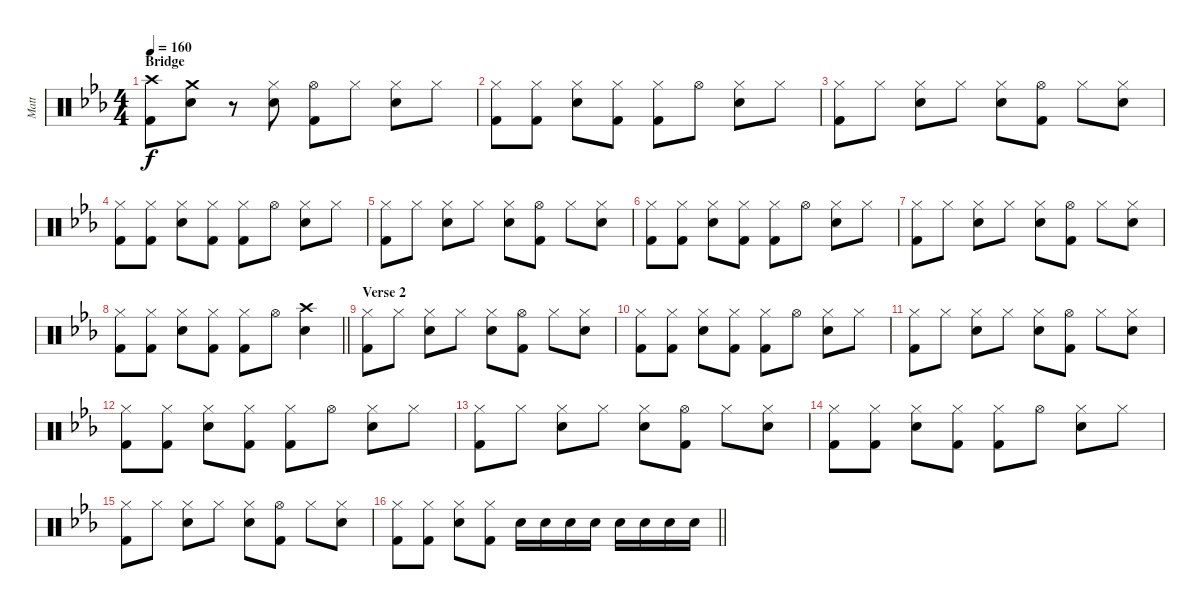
\track ("Matt" "Matt") {instrument percussion}
\staff {score}
\articulation defaults
\ts (4 4)
\section ("" "Bridge")
\tempo 160
\clef neutral
\ks cminor
("Crash high (hit)" "Kick (hit) 2").8{dy f} ("Crash medium (hit)" "Electric Snare (hit)").8 r.8 ("Hi-Hat (closed)" "Electric Snare (hit)").8 ("Hi-Hat (open)" "Kick (hit) 2").8 "Hi-Hat (closed)".8 ("Hi-Hat (closed)" "Electric Snare (hit)").8 "Hi-Hat (closed)".8 |
("Hi-Hat (closed)" "Kick (hit) 2").8 ("Hi-Hat (closed)" "Kick (hit) 2").8 ("Hi-Hat (closed)" "Electric Snare (hit)").8 ("Hi-Hat (closed)" "Kick (hit) 2").8 ("Hi-Hat (closed)" "Kick (hit) 2").8 "Hi-Hat (open)".8 ("Hi-Hat (closed)" "Electric Snare (hit)").8 "Hi-Hat (closed)".8 |
("Hi-Hat (closed)" "Kick (hit) 2").8 "Hi-Hat (closed)".8 ("Hi-Hat (closed)" "Electric Snare (hit)").8 "Hi-Hat (closed)".8 ("Hi-Hat (closed)" "Electric Snare (hit)").8 ("Hi-Hat (open)" "Kick (hit) 2").8 "Hi-Hat (closed)".8 ("Hi-Hat (closed)" "Electric Snare (hit)").8 |
("Hi-Hat (closed)" "Kick (hit) 2").8 ("Hi-Hat (closed)" "Kick (hit) 2").8 ("Hi-Hat (closed)" "Electric Snare (hit)").8 ("Hi-Hat (closed)" "Kick (hit) 2").8 ("Hi-Hat (closed)" "Kick (hit) 2").8 "Hi-Hat (open)".8 ("Hi-Hat (closed)" "Electric Snare (hit)").8 "Hi-Hat (closed)".8 |
("Hi-Hat (closed)" "Kick (hit) 2").8 "Hi-Hat (closed)".8 ("Hi-Hat (closed)" "Electric Snare (hit)").8 "Hi-Hat (closed)".8 ("Hi-Hat (closed)" "Electric Snare (hit)").8 ("Hi-Hat (open)" "Kick (hit) 2").8 "Hi-Hat (closed)".8 ("Hi-Hat (closed)" "Electric Snare (hit)").8 |
("Hi-Hat (closed)" "Kick (hit) 2").8 ("Hi-Hat (closed)" "Kick (hit) 2").8 ("Hi-Hat (closed)" "Electric Snare (hit)").8 ("Hi-Hat (closed)" "Kick (hit) 2").8 ("Hi-Hat (closed)" "Kick (hit) 2").8 "Hi-Hat (open)".8 ("Hi-Hat (closed)" "Electric Snare (hit)").8 "Hi-Hat (closed)".8 |
("Hi-Hat (closed)" "Kick (hit) 2").8 "Hi-Hat (closed)".8 ("Hi-Hat (closed)" "Electric Snare (hit)").8 "Hi-Hat (closed)".8 ("Hi-Hat (closed)" "Electric Snare (hit)").8 ("Hi-Hat (open)" "Kick (hit) 2").8 "Hi-Hat (closed)".8 ("Hi-Hat (closed)" "Electric Snare (hit)").8 |
\barLineRight lightlight
("Hi-Hat (closed)" "Kick (hit) 2").8 ("Hi-Hat (closed)" "Kick (hit) 2").8 ("Hi-Hat (closed)" "Electric Snare (hit)").8 ("Hi-Hat (closed)" "Kick (hit) 2").8 ("Hi-Hat (closed)" "Kick (hit) 2").8 "Hi-Hat (open)".8 ("Crash high (hit)" "Electric Snare (hit)").4 |
\section ("" "Verse 2")
("Hi-Hat (closed)" "Kick (hit) 2").8 "Hi-Hat (closed)".8 ("Hi-Hat (closed)" "Electric Snare (hit)").8 "Hi-Hat (closed)".8 ("Hi-Hat (closed)" "Electric Snare (hit)").8 ("Hi-Hat (open)" "Kick (hit) 2").8 "Hi-Hat (closed)".8 ("Hi-Hat (closed)" "Electric Snare (hit)").8 |
("Hi-Hat (closed)" "Kick (hit) 2").8 ("Hi-Hat (closed)" "Kick (hit) 2").8 ("Hi-Hat (closed)" "Electric Snare (hit)").8 ("Hi-Hat (closed)" "Kick (hit) 2").8 ("Hi-Hat (closed)" "Kick (hit) 2").8 "Hi-Hat (open)".8 ("Hi-Hat (closed)" "Electric Snare (hit)").8 "Hi-Hat (closed)".8 |
("Hi-Hat (closed)" "Kick (hit) 2").8 "Hi-Hat (closed)".8 ("Hi-Hat (closed)" "Electric Snare (hit)").8 "Hi-Hat (closed)".8 ("Hi-Hat (closed)" "Electric Snare (hit)").8 ("Hi-Hat (open)" "Kick (hit) 2").8 "Hi-Hat (closed)".8 ("Hi-Hat (closed)" "Electric Snare (hit)").8 |
("Hi-Hat (closed)" "Kick (hit) 2").8 ("Hi-Hat (closed)" "Kick (hit) 2").8 ("Hi-Hat (closed)" "Electric Snare (hit)").8 ("Hi-Hat (closed)" "Kick (hit) 2").8 ("Hi-Hat (closed)" "Kick (hit) 2").8 "Hi-Hat (open)".8 ("Hi-Hat (closed)" "Electric Snare (hit)").8 "Hi-Hat (closed)".8 |
("Hi-Hat (closed)" "Kick (hit) 2").8 "Hi-Hat (closed)".8 ("Hi-Hat (closed)" "Electric Snare (hit)").8 "Hi-Hat (closed)".8 ("Hi-Hat (closed)" "Electric Snare (hit)").8 ("Hi-Hat (open)" "Kick (hit) 2").8 "Hi-Hat (closed)".8 ("Hi-Hat (closed)" "Electric Snare (hit)").8 |
("Hi-Hat (closed)" "Kick (hit) 2").8 ("Hi-Hat (closed)" "Kick (hit) 2").8 ("Hi-Hat (closed)" "Electric Snare (hit)").8 ("Hi-Hat (closed)" "Kick (hit) 2").8 ("Hi-Hat (closed)" "Kick (hit) 2").8 "Hi-Hat (open)".8 ("Hi-Hat (closed)" "Electric Snare (hit)").8 "Hi-Hat (closed)".8 |
("Hi-Hat (closed)" "Kick (hit) 2").8 "Hi-Hat (closed)".8 ("Hi-Hat (closed)" "Electric Snare (hit)").8 "Hi-Hat (closed)".8 ("Hi-Hat (closed)" "Electric Snare (hit)").8 ("Hi-Hat (open)" "Kick (hit) 2").8 "Hi-Hat (closed)".8 ("Hi-Hat (closed)" "Electric Snare (hit)").8 |
\barLineRight lightlight
("Hi-Hat (closed)" "Kick (hit) 2").8 ("Hi-Hat (closed)" "Kick (hit) 2").8 ("Hi-Hat (closed)" "Electric Snare (hit)").8 ("Hi-Hat (closed)" "Kick (hit) 2").8 "Electric Snare (hit)".16 "Electric Snare (hit)".16 "Electric Snare (hit)".16 "Electric Snare (hit)".16 "Electric Snare (hit)".16 "Electric Snare (hit)".16 "Electric Snare (hit)".16 "Electric Snare (hit)".16
